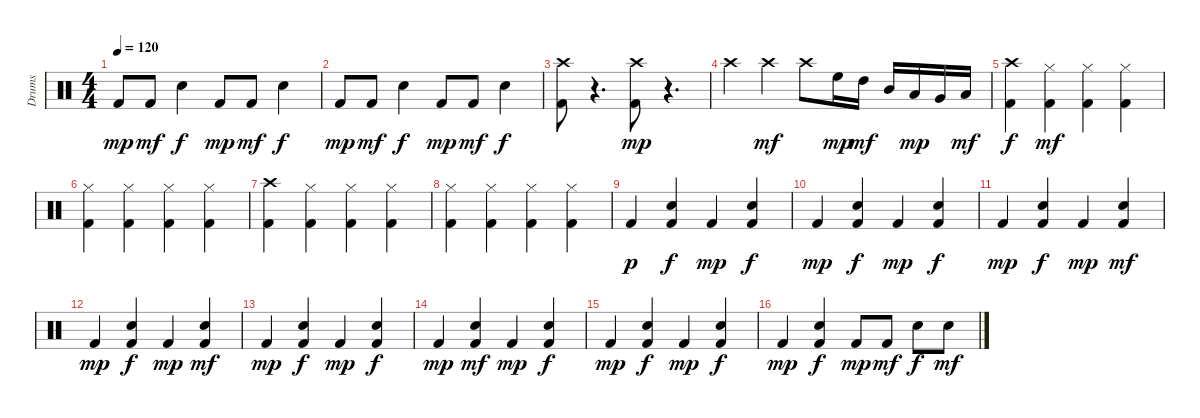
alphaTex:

\track ("Drums" "Drums") {instrument percussion}
\staff {score}
\articulation defaults
\ts (4 4)
\tempo 120
\clef neutral
\ks c "Kick (hit) 2".8{dy mp} "Kick (hit) 2".8{dy mf} "Snare (hit) 2".4{dy f} "Kick (hit) 2".8{dy mp} "Kick (hit) 2".8{dy mf} "Snare (hit) 2".4{dy f}
|
"Kick (hit) 2".8{dy mp} "Kick (hit) 2".8{dy mf} "Snare (hit) 2".4{dy f} "Kick (hit) 2".8{dy mp} "Kick (hit) 2".8{dy mf} "Snare (hit) 2".4{dy f} |
("Kick (hit) 2" "Crash high (hit)").8 r.4{d} ("Kick (hit) 2" "Crash high (hit)").8{dy mp} r.4{d} |
"Crash high (hit)".4 "Crash high (hit)".4{dy mf} "Crash high (hit)".8 "High Floor Tom (hit)".16{dy mp} "High Tom (hit)".16{dy mf} "Mid Tom (hit)".16 "Low Tom (hit)".16{dy mp} "Very Low Tom (hit)".16 "Low Floor Tom (hit)".16{dy mf} |
("Kick (hit) 2" "Crash high (hit)").4{dy f} ("Kick (hit) 2" "Hi-Hat (closed)").4{dy mf} ("Kick (hit) 2" "Hi-Hat (closed)").4 ("Kick (hit) 2" "Hi-Hat (closed)").4 |
("Kick (hit) 2" "Hi-Hat (closed)").4 ("Kick (hit) 2" "Hi-Hat (closed)").4 ("Kick (hit) 2" "Hi-Hat (closed)").4 ("Kick (hit) 2" "Hi-Hat (closed)").4 |
("Kick (hit) 2" "Crash high (hit)").4 ("Kick (hit) 2" "Hi-Hat (closed)").4 ("Kick (hit) 2" "Hi-Hat (closed)").4 ("Kick (hit) 2" "Hi-Hat (closed)").4 |
("Kick (hit) 2" "Hi-Hat (closed)").4 ("Kick (hit) 2" "Hi-Hat (closed)").4 ("Kick (hit) 2" "Hi-Hat (closed)").4 ("Kick (hit) 2" "Hi-Hat (closed)").4 |
"Kick (hit) 2".4{dy p} ("Kick (hit) 2" "Snare (hit) 2").4{dy f} "Kick (hit) 2".4{dy mp} ("Kick (hit) 2" "Snare (hit) 2").4{dy f} |
"Kick (hit) 2".4{dy mp} ("Kick (hit) 2" "Snare (hit) 2").4{dy f} "Kick (hit) 2".4{dy mp} ("Kick (hit) 2" "Snare (hit) 2").4{dy f} |
"Kick (hit) 2".4{dy mp} ("Kick (hit) 2" "Snare (hit) 2").4{dy f} "Kick (hit) 2".4{dy mp} ("Kick (hit) 2" "Snare (hit) 2").4{dy mf} |
"Kick (hit) 2".4{dy mp} ("Kick (hit) 2" "Snare (hit) 2").4{dy f} "Kick (hit) 2".4{dy mp} ("Kick (hit) 2" "Snare (hit) 2").4{dy mf} |
"Kick (hit) 2".4{dy mp} ("Kick (hit) 2" "Snare (hit) 2").4{dy f} "Kick (hit) 2".4{dy mp} ("Kick (hit) 2" "Snare (hit) 2").4{dy f} |
"Kick (hit) 2".4{dy mp} ("Kick (hit) 2" "Snare (hit) 2").4{dy mf} "Kick (hit) 2".4{dy mp} ("Kick (hit) 2" "Snare (hit) 2").4{dy f} |
"Kick (hit) 2".4{dy mp} ("Kick (hit) 2" "Snare (hit) 2").4{dy f} "Kick (hit) 2".4{dy mp} ("Kick (hit) 2" "Snare (hit) 2").4{dy f} |
"Kick (hit) 2".4{dy mp} ("Kick (hit) 2" "Snare (hit) 2").4{dy f} "Kick (hit) 2".8{dy mp} "Kick (hit) 2".8{dy mf} "Snare (hit) 2".8{dy f} "Snare (hit) 2".8{dy mf}
